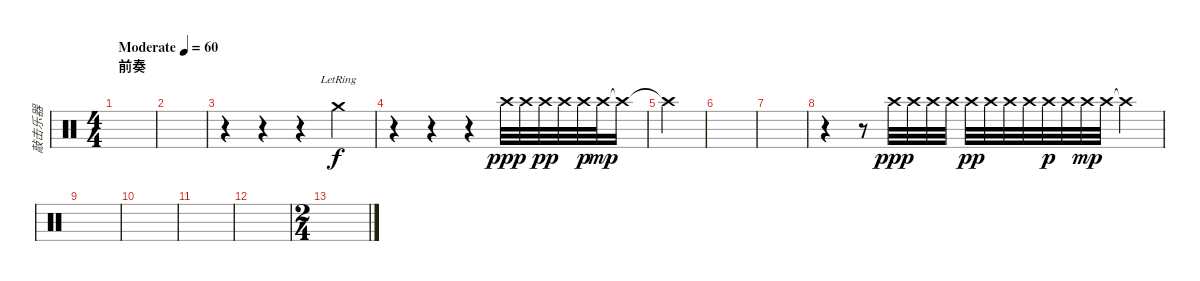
\track ("敲击乐器" "敲击乐器") {instrument percussion}
\staff {score}
\articulation defaults
\ts (4 4)
\section ("" "前奏")
\tempo (60 "Moderate")
\clef neutral
\ks c
|
|
r.4 r.4 r.4 "Crash medium (hit)"{lr}.4 |
r.4 r.4 r.4 "Crash high (hit)".32{dy ppp} "Crash high (hit)".32 "Crash high (hit)".32{dy pp} "Crash high (hit)".32 "Crash high (hit)".32{dy p} "Crash high (hit)".32{dy mp} "Crash high (hit)"{t}.16 |
"Crash high (hit)"{t}.4 |
|
|
r.4 r.8 "Crash high (hit)".32{dy ppp} "Crash high (hit)".32 "Crash high (hit)".32 "Crash high (hit)".32 "Crash high (hit)".32{dy pp} "Crash high (hit)".32 "Crash high (hit)".32 "Crash high (hit)".32 "Crash high (hit)".32{dy p} "Crash high (hit)".32 "Crash high (hit)".32{dy mp} "Crash high (hit)".32 "Crash high (hit)"{t}.4 |
|
|
|
|
\ts (2 4)
